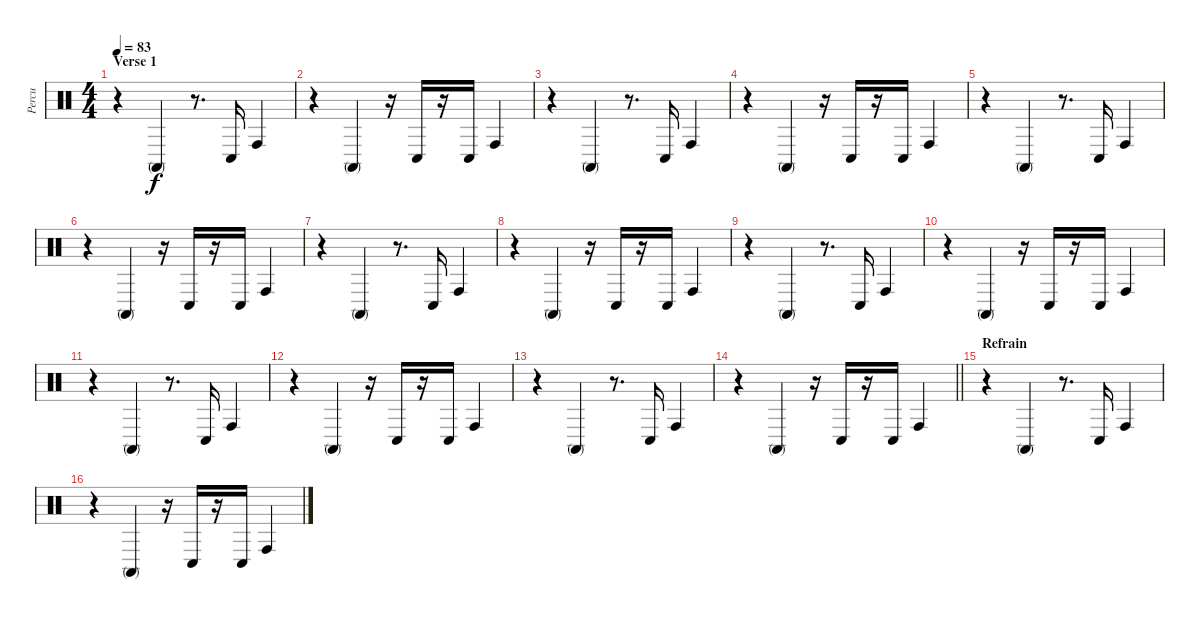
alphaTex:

\track ("Percu" "Percu") {instrument percussion}
\staff {score}
\articulation defaults
\ts (4 4)
\section ("" "Verse 1")
\tempo 83
\clef neutral
\ks c
r.4{dy f} "Conga high (mute)".4 r.8{d} "Conga low (hit)".16 "Conga high (hit)".4 |
r.4 "Conga high (mute)".4 r.16 "Conga low (hit)".16 r.16 "Conga low (hit)".16 "Conga high (hit)".4 |
r.4 "Conga high (mute)".4 r.8{d} "Conga low (hit)".16 "Conga high (hit)".4 |
r.4 "Conga high (mute)".4 r.16 "Conga low (hit)".16 r.16 "Conga low (hit)".16 "Conga high (hit)".4 |
r.4 "Conga high (mute)".4 r.8{d} "Conga low (hit)".16 "Conga high (hit)".4 |
r.4 "Conga high (mute)".4 r.16 "Conga low (hit)".16 r.16 "Conga low (hit)".16 "Conga high (hit)".4 |
r.4 "Conga high (mute)".4 r.8{d} "Conga low (hit)".16 "Conga high (hit)".4 |
r.4 "Conga high (mute)".4 r.16 "Conga low (hit)".16 r.16 "Conga low (hit)".16 "Conga high (hit)".4 |
r.4 "Conga high (mute)".4 r.8{d} "Conga low (hit)".16 "Conga high (hit)".4 |
r.4 "Conga high (mute)".4 r.16 "Conga low (hit)".16 r.16 "Conga low (hit)".16 "Conga high (hit)".4 |
r.4 "Conga high (mute)".4 r.8{d} "Conga low (hit)".16 "Conga high (hit)".4 |
r.4 "Conga high (mute)".4 r.16 "Conga low (hit)".16 r.16 "Conga low (hit)".16 "Conga high (hit)".4 |
r.4 "Conga high (mute)".4 r.8{d} "Conga low (hit)".16 "Conga high (hit)".4 |
\barLineRight lightlight
r.4 "Conga high (mute)".4 r.16 "Conga low (hit)".16 r.16 "Conga low (hit)".16 "Conga high (hit)".4 |
\section ("" "Refrain")
r.4 "Conga high (mute)".4 r.8{d} "Conga low (hit)".16 "Conga high (hit)".4 |
r.4 "Conga high (mute)".4 r.16 "Conga low (hit)".16 r.16 "Conga low (hit)".16 "Conga high (hit)".4
